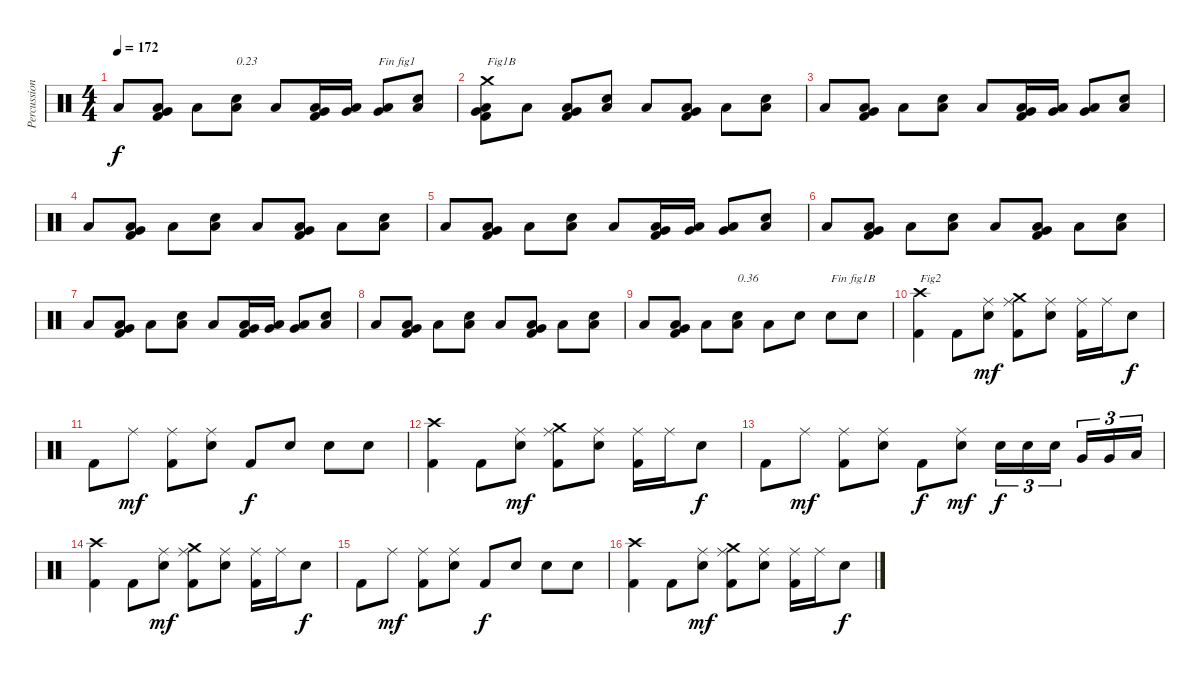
\track ("Percussions" "Percussion") {instrument percussion}
\staff {score}
\articulation defaults
\ts (4 4)
\tempo 172
\clef neutral
\ks c "Low Floor Tom (hit)".8{dy f}
("Kick (hit) 2" "Low Floor Tom (hit)" "Very Low Tom (hit)").8 "Low Floor Tom (hit)".8 ("Electric Snare (hit)" "Low Floor Tom (hit)").8{txt "0.23"} "Low Floor Tom (hit)".8 ("Kick (hit) 2" "Low Floor Tom (hit)" "Very Low Tom (hit)").16 ("Low Floor Tom (hit)" "Very Low Tom (hit)").16 ("Low Floor Tom (hit)" "Very Low Tom (hit)").8{txt "Fin fig1"} ("Electric Snare (hit)" "Low Floor Tom (hit)").8 |
("Kick (hit) 2" "Low Floor Tom (hit)" "Very Low Tom (hit)" "Crash medium (hit)").8{txt "Fig1B"} "Low Floor Tom (hit)".8 ("Kick (hit) 2" "Low Floor Tom (hit)" "Very Low Tom (hit)").8 ("Electric Snare (hit)" "Low Floor Tom (hit)").8 "Low Floor Tom (hit)".8 ("Kick (hit) 2" "Low Floor Tom (hit)" "Very Low Tom (hit)").8 "Low Floor Tom (hit)".8 ("Electric Snare (hit)" "Low Floor Tom (hit)").8 |
"Low Floor Tom (hit)".8 ("Kick (hit) 2" "Low Floor Tom (hit)" "Very Low Tom (hit)").8 "Low Floor Tom (hit)".8 ("Electric Snare (hit)" "Low Floor Tom (hit)").8 "Low Floor Tom (hit)".8 ("Kick (hit) 2" "Low Floor Tom (hit)" "Very Low Tom (hit)").16 ("Low Floor Tom (hit)" "Very Low Tom (hit)").16 ("Low Floor Tom (hit)" "Very Low Tom (hit)").8 ("Electric Snare (hit)" "Low Floor Tom (hit)").8 |
"Low Floor Tom (hit)".8 ("Kick (hit) 2" "Low Floor Tom (hit)" "Very Low Tom (hit)").8 "Low Floor Tom (hit)".8 ("Electric Snare (hit)" "Low Floor Tom (hit)").8 "Low Floor Tom (hit)".8 ("Kick (hit) 2" "Low Floor Tom (hit)" "Very Low Tom (hit)").8 "Low Floor Tom (hit)".8 ("Electric Snare (hit)" "Low Floor Tom (hit)").8 |
"Low Floor Tom (hit)".8 ("Kick (hit) 2" "Low Floor Tom (hit)" "Very Low Tom (hit)").8 "Low Floor Tom (hit)".8 ("Electric Snare (hit)" "Low Floor Tom (hit)").8 "Low Floor Tom (hit)".8 ("Kick (hit) 2" "Low Floor Tom (hit)" "Very Low Tom (hit)").16 ("Low Floor Tom (hit)" "Very Low Tom (hit)").16 ("Low Floor Tom (hit)" "Very Low Tom (hit)").8 ("Electric Snare (hit)" "Low Floor Tom (hit)").8 |
"Low Floor Tom (hit)".8 ("Kick (hit) 2" "Low Floor Tom (hit)" "Very Low Tom (hit)").8 "Low Floor Tom (hit)".8 ("Electric Snare (hit)" "Low Floor Tom (hit)").8 "Low Floor Tom (hit)".8 ("Kick (hit) 2" "Low Floor Tom (hit)" "Very Low Tom (hit)").8 "Low Floor Tom (hit)".8 ("Electric Snare (hit)" "Low Floor Tom (hit)").8 |
"Low Floor Tom (hit)".8 ("Kick (hit) 2" "Low Floor Tom (hit)" "Very Low Tom (hit)").8 "Low Floor Tom (hit)".8 ("Electric Snare (hit)" "Low Floor Tom (hit)").8 "Low Floor Tom (hit)".8 ("Kick (hit) 2" "Low Floor Tom (hit)" "Very Low Tom (hit)").16 ("Low Floor Tom (hit)" "Very Low Tom (hit)").16 ("Low Floor Tom (hit)" "Very Low Tom (hit)").8 ("Electric Snare (hit)" "Low Floor Tom (hit)").8 |
"Low Floor Tom (hit)".8 ("Kick (hit) 2" "Low Floor Tom (hit)" "Very Low Tom (hit)").8 "Low Floor Tom (hit)".8 ("Electric Snare (hit)" "Low Floor Tom (hit)").8 "Low Floor Tom (hit)".8 ("Kick (hit) 2" "Low Floor Tom (hit)" "Very Low Tom (hit)").8 "Low Floor Tom (hit)".8 ("Electric Snare (hit)" "Low Floor Tom (hit)").8 |
"Low Floor Tom (hit)".8 ("Kick (hit) 2" "Low Floor Tom (hit)" "Very Low Tom (hit)").8 "Low Floor Tom (hit)".8 ("Electric Snare (hit)" "Low Floor Tom (hit)").8{txt "0.36"} "Low Floor Tom (hit)".8 "Electric Snare (hit)".8 "Electric Snare (hit)".8{txt "Fin fig1B"} "Electric Snare (hit)".8 |
("Kick (hit) 2" "Crash high (hit)").4{txt "Fig2"} "Kick (hit) 2".8 ("Electric Snare (hit)" "Ride (middle)").8{dy mf} ("Kick (hit) 2" "Ride (middle)" "Crash medium (hit)").8 ("Electric Snare (hit)" "Ride (middle)").8 ("Kick (hit) 2" "Ride (middle)").16 "Ride (middle)".16 "Electric Snare (hit)".8{dy f} |
"Kick (hit) 2".8 "Ride (middle)".8{dy mf} ("Kick (hit) 2" "Ride (middle)").8 ("Electric Snare (hit)" "Ride (middle)").8 "Kick (hit) 2".8{dy f} "Electric Snare (hit)".8 "Electric Snare (hit)".8 "Electric Snare (hit)".8 |
("Kick (hit) 2" "Crash high (hit)").4 "Kick (hit) 2".8 ("Electric Snare (hit)" "Ride (middle)").8{dy mf} ("Kick (hit) 2" "Ride (middle)" "Crash medium (hit)").8 ("Electric Snare (hit)" "Ride (middle)").8 ("Kick (hit) 2" "Ride (middle)").16 "Ride (middle)".16 "Electric Snare (hit)".8{dy f} |
"Kick (hit) 2".8 "Ride (middle)".8{dy mf} ("Kick (hit) 2" "Ride (middle)").8 ("Electric Snare (hit)" "Ride (middle)").8 "Kick (hit) 2".8{dy f} ("Electric Snare (hit)" "Ride (middle)").8{dy mf} "Electric Snare (hit)".16{tu (3 2) dy f} "Electric Snare (hit)".16{tu (3 2)} "Electric Snare (hit)".16{tu (3 2)} "Very Low Tom (hit)".16{tu (3 2)} "Very Low Tom (hit)".16{tu (3 2)} "Low Floor Tom (hit)".16{tu (3 2)} |
("Kick (hit) 2" "Crash high (hit)").4 "Kick (hit) 2".8 ("Electric Snare (hit)" "Ride (middle)").8{dy mf} ("Kick (hit) 2" "Ride (middle)" "Crash medium (hit)").8 ("Electric Snare (hit)" "Ride (middle)").8 ("Kick (hit) 2" "Ride (middle)").16 "Ride (middle)".16 "Electric Snare (hit)".8{dy f} |
"Kick (hit) 2".8 "Ride (middle)".8{dy mf} ("Kick (hit) 2" "Ride (middle)").8 ("Electric Snare (hit)" "Ride (middle)").8 "Kick (hit) 2".8{dy f} "Electric Snare (hit)".8 "Electric Snare (hit)".8 "Electric Snare (hit)".8 |
("Kick (hit) 2" "Crash high (hit)").4 "Kick (hit) 2".8 ("Electric Snare (hit)" "Ride (middle)").8{dy mf} ("Kick (hit) 2" "Ride (middle)" "Crash medium (hit)").8 ("Electric Snare (hit)" "Ride (middle)").8 ("Kick (hit) 2" "Ride (middle)").16 "Ride (middle)".16 "Electric Snare (hit)".8{dy f}
